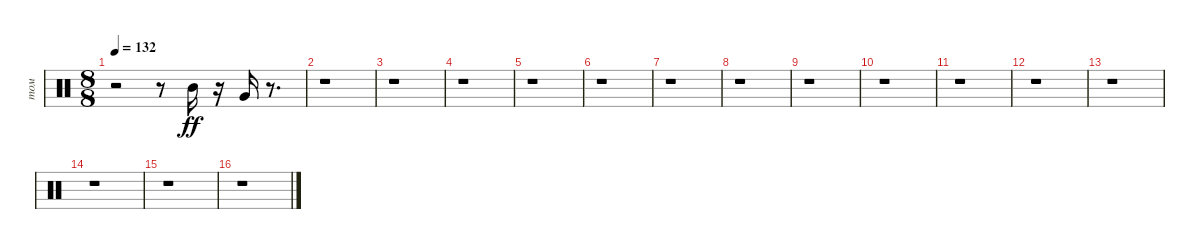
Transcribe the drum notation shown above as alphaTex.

\track ("том" "том") {instrument percussion}
\staff {score}
\articulation defaults
\ts (8 8)
\tempo 132
\clef neutral
\ks c
r.2{dy ff} r.8 "Mid Tom (hit)".16 r.16 "Very Low Tom (hit)".16 r.8{d} |
r.1 |
r.1 |
r.1 |
r.1 |
r.1 |
r.1 |
r.1 |
r.1 |
r.1 |
r.1 |
r.1 |
r.1 |
r.1 |
r.1 |
r.1
